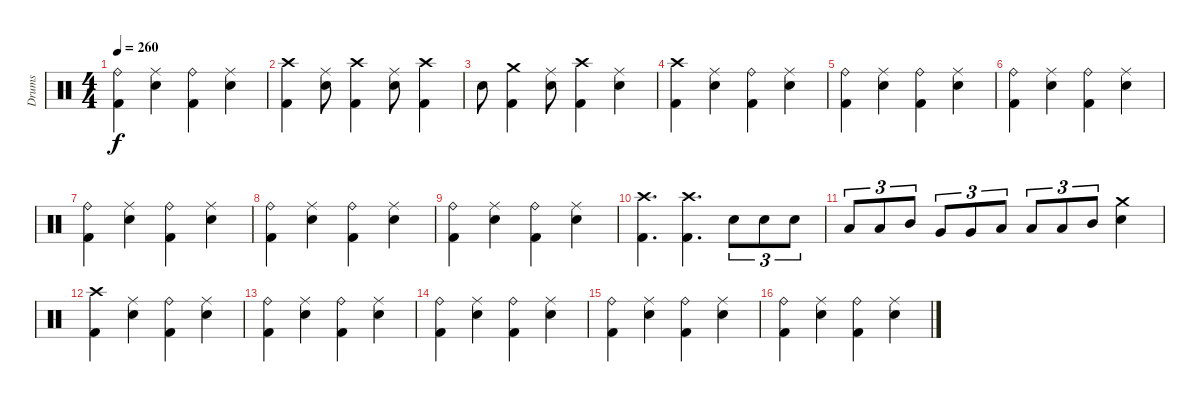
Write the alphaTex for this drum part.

\track ("Drums" "Drums") {instrument percussion}
\staff {score}
\articulation defaults
\ts (4 4)
\tempo 260
\clef neutral
\ks c
("Ride (bell)" "Kick (hit) 2").4{dy f} ("Ride (middle)" "Electric Snare (hit)").4 ("Ride (bell)" "Kick (hit) 2").4 ("Ride (middle)" "Electric Snare (hit)").4 |
("Crash high (hit)" "Kick (hit) 2").4 ("Ride (middle)" "Electric Snare (hit)").8 ("Crash high (hit)" "Kick (hit) 2").4 ("Ride (middle)" "Electric Snare (hit)").8 ("Crash high (hit)" "Kick (hit) 2").4 |
"Electric Snare (hit)".8 ("Crash medium (hit)" "Kick (hit) 2").4 ("Ride (middle)" "Electric Snare (hit)").8 ("Crash high (hit)" "Kick (hit) 2").4 ("Ride (middle)" "Electric Snare (hit)").4 |
("Crash high (hit)" "Kick (hit) 2").4 ("Ride (middle)" "Electric Snare (hit)").4 ("Ride (bell)" "Kick (hit) 2").4 ("Ride (middle)" "Electric Snare (hit)").4 |
("Ride (bell)" "Kick (hit) 2").4 ("Ride (middle)" "Electric Snare (hit)").4 ("Ride (bell)" "Kick (hit) 2").4 ("Ride (middle)" "Electric Snare (hit)").4 |
("Ride (bell)" "Kick (hit) 2").4 ("Ride (middle)" "Electric Snare (hit)").4 ("Ride (bell)" "Kick (hit) 2").4 ("Ride (middle)" "Electric Snare (hit)").4 |
("Ride (bell)" "Kick (hit) 2").4 ("Ride (middle)" "Electric Snare (hit)").4 ("Ride (bell)" "Kick (hit) 2").4 ("Ride (middle)" "Electric Snare (hit)").4 |
("Ride (bell)" "Kick (hit) 2").4 ("Ride (middle)" "Electric Snare (hit)").4 ("Ride (bell)" "Kick (hit) 2").4 ("Ride (middle)" "Electric Snare (hit)").4 |
("Ride (bell)" "Kick (hit) 2").4 ("Ride (middle)" "Electric Snare (hit)").4 ("Ride (bell)" "Kick (hit) 2").4 ("Ride (middle)" "Electric Snare (hit)").4 |
("Crash high (hit)" "Kick (hit) 2").4{d} ("Crash high (hit)" "Kick (hit) 2").4{d} "Electric Snare (hit)".8{tu (3 2)} "Electric Snare (hit)".8{tu (3 2)} "Electric Snare (hit)".8{tu (3 2)} |
"Low Tom (hit)".8{tu (3 2)} "Low Tom (hit)".8{tu (3 2)} "Mid Tom (hit)".8{tu (3 2)} "Very Low Tom (hit)".8{tu (3 2)} "Very Low Tom (hit)".8{tu (3 2)} "Low Tom (hit)".8{tu (3 2)} "Low Tom (hit)".8{tu (3 2)} "Low Tom (hit)".8{tu (3 2)} "Mid Tom (hit)".8{tu (3 2)} ("Crash medium (hit)" "Electric Snare (hit)").4 |
("Crash high (hit)" "Kick (hit) 2").4 ("Ride (middle)" "Electric Snare (hit)").4 ("Ride (bell)" "Kick (hit) 2").4 ("Ride (middle)" "Electric Snare (hit)").4 |
("Ride (bell)" "Kick (hit) 2").4 ("Ride (middle)" "Electric Snare (hit)").4 ("Ride (bell)" "Kick (hit) 2").4 ("Ride (middle)" "Electric Snare (hit)").4 |
("Ride (bell)" "Kick (hit) 2").4 ("Ride (middle)" "Electric Snare (hit)").4 ("Ride (bell)" "Kick (hit) 2").4 ("Ride (middle)" "Electric Snare (hit)").4 |
("Ride (bell)" "Kick (hit) 2").4 ("Ride (middle)" "Electric Snare (hit)").4 ("Ride (bell)" "Kick (hit) 2").4 ("Ride (middle)" "Electric Snare (hit)").4 |
("Ride (bell)" "Kick (hit) 2").4 ("Ride (middle)" "Electric Snare (hit)").4 ("Ride (bell)" "Kick (hit) 2").4 ("Ride (middle)" "Electric Snare (hit)").4
